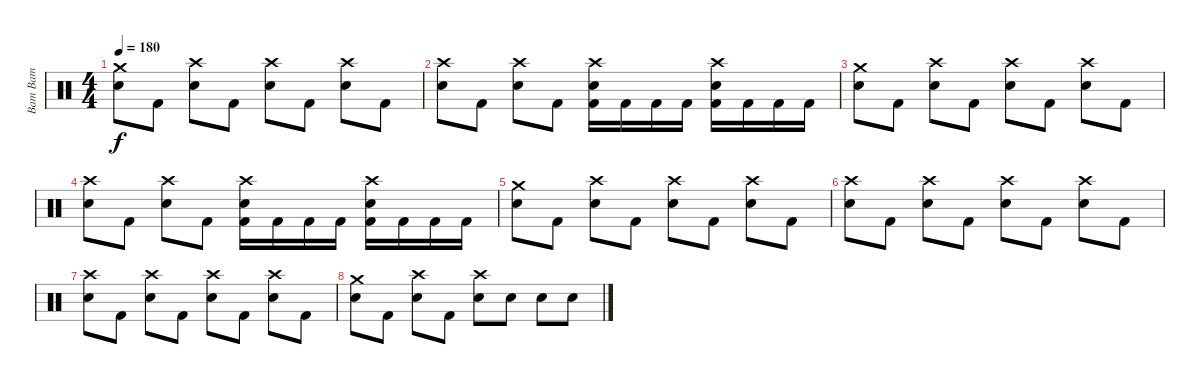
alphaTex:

\track ("Bam Bam" "Bam Bam") {instrument percussion}
\staff {score}
\articulation defaults
\ts (4 4)
\tempo 180
\clef neutral
\ks c
("Crash medium (hit)" "Electric Snare (hit)").8{dy f} "Kick (hit) 2".8 ("Crash high (hit)" "Electric Snare (hit)").8 "Kick (hit) 2".8 ("Crash high (hit)" "Electric Snare (hit)").8 "Kick (hit) 2".8 ("Crash high (hit)" "Electric Snare (hit)").8 "Kick (hit) 2".8 |
("Crash high (hit)" "Electric Snare (hit)").8 "Kick (hit) 2".8 ("Crash high (hit)" "Electric Snare (hit)").8 "Kick (hit) 2".8 ("Crash high (hit)" "Electric Snare (hit)" "Kick (hit) 2").16 "Kick (hit) 2".16 "Kick (hit) 2".16 "Kick (hit) 2".16 ("Crash high (hit)" "Electric Snare (hit)" "Kick (hit) 2").16 "Kick (hit) 2".16 "Kick (hit) 2".16 "Kick (hit) 2".16 |
("Crash medium (hit)" "Electric Snare (hit)").8 "Kick (hit) 2".8 ("Crash high (hit)" "Electric Snare (hit)").8 "Kick (hit) 2".8 ("Crash high (hit)" "Electric Snare (hit)").8 "Kick (hit) 2".8 ("Crash high (hit)" "Electric Snare (hit)").8 "Kick (hit) 2".8 |
("Crash high (hit)" "Electric Snare (hit)").8 "Kick (hit) 2".8 ("Crash high (hit)" "Electric Snare (hit)").8 "Kick (hit) 2".8 ("Crash high (hit)" "Electric Snare (hit)" "Kick (hit) 2").16 "Kick (hit) 2".16 "Kick (hit) 2".16 "Kick (hit) 2".16 ("Crash high (hit)" "Electric Snare (hit)" "Kick (hit) 2").16 "Kick (hit) 2".16 "Kick (hit) 2".16 "Kick (hit) 2".16 |
("Crash medium (hit)" "Electric Snare (hit)").8 "Kick (hit) 2".8 ("Crash high (hit)" "Electric Snare (hit)").8 "Kick (hit) 2".8 ("Crash high (hit)" "Electric Snare (hit)").8 "Kick (hit) 2".8 ("Crash high (hit)" "Electric Snare (hit)").8 "Kick (hit) 2".8 |
("Crash high (hit)" "Electric Snare (hit)").8 "Kick (hit) 2".8 ("Crash high (hit)" "Electric Snare (hit)").8 "Kick (hit) 2".8 ("Crash high (hit)" "Electric Snare (hit)").8 "Kick (hit) 2".8 ("Crash high (hit)" "Electric Snare (hit)").8 "Kick (hit) 2".8 |
("Crash high (hit)" "Electric Snare (hit)").8 "Kick (hit) 2".8 ("Crash high (hit)" "Electric Snare (hit)").8 "Kick (hit) 2".8 ("Crash high (hit)" "Electric Snare (hit)").8 "Kick (hit) 2".8 ("Crash high (hit)" "Electric Snare (hit)").8 "Kick (hit) 2".8 |
("Crash medium (hit)" "Electric Snare (hit)").8 "Kick (hit) 2".8 ("Crash high (hit)" "Electric Snare (hit)").8 "Kick (hit) 2".8 ("Crash high (hit)" "Electric Snare (hit)").8 "Electric Snare (hit)".8 "Electric Snare (hit)".8 "Electric Snare (hit)".8
